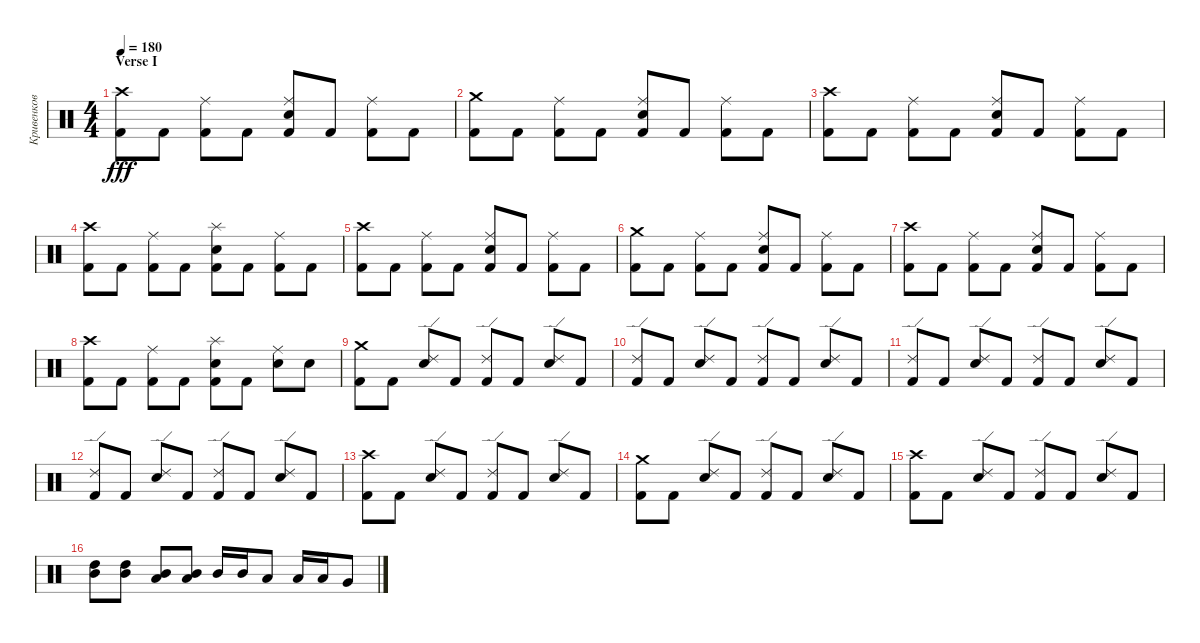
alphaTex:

\track ("Кривенков" "Кривенков") {instrument percussion}
\staff {score}
\articulation defaults
\ts (4 4)
\section ("" "Verse I")
\tempo 180
\clef neutral
\ks c
("Kick (hit) 2" "Crash high (hit)").8{dy fff} "Kick (hit) 2".8 ("Ride (middle)" "Kick (hit) 2").8 "Kick (hit) 2".8 ("Kick (hit) 2" "Ride (middle)" "Snare (hit) 2").8 "Kick (hit) 2".8 ("Ride (middle)" "Kick (hit) 2").8 "Kick (hit) 2".8 |
("Kick (hit) 2" "Crash medium (hit)").8 "Kick (hit) 2".8 ("Kick (hit) 2" "Ride (middle)").8 "Kick (hit) 2".8 ("Kick (hit) 2" "Ride (middle)" "Snare (hit) 2").8 "Kick (hit) 2".8 ("Ride (middle)" "Kick (hit) 2").8 "Kick (hit) 2".8 |
("Kick (hit) 2" "Crash high (hit)").8 "Kick (hit) 2".8 ("Ride (middle)" "Kick (hit) 2").8 "Kick (hit) 2".8 ("Snare (hit) 2" "Kick (hit) 2" "Ride (middle)").8 "Kick (hit) 2".8 ("Kick (hit) 2" "Ride (middle)").8 "Kick (hit) 2".8 |
("Crash high (hit)" "Kick (hit) 2").8 "Kick (hit) 2".8 ("Ride (middle)" "Kick (hit) 2").8 "Kick (hit) 2".8 ("Kick (hit) 2" "Splash (hit)" "Snare (hit) 2").8 "Kick (hit) 2".8 ("Ride (middle)" "Kick (hit) 2").8 "Kick (hit) 2".8 |
("Crash high (hit)" "Kick (hit) 2").8 "Kick (hit) 2".8 ("Ride (middle)" "Kick (hit) 2").8 "Kick (hit) 2".8 ("Snare (hit) 2" "Ride (middle)" "Kick (hit) 2").8 "Kick (hit) 2".8 ("Ride (middle)" "Kick (hit) 2").8 "Kick (hit) 2".8 |
("Crash medium (hit)" "Kick (hit) 2").8 "Kick (hit) 2".8 ("Kick (hit) 2" "Ride (middle)").8 "Kick (hit) 2".8 ("Kick (hit) 2" "Snare (hit) 2" "Ride (middle)").8 "Kick (hit) 2".8 ("Kick (hit) 2" "Ride (middle)").8 "Kick (hit) 2".8 |
("Kick (hit) 2" "Crash high (hit)").8 "Kick (hit) 2".8 ("Ride (middle)" "Kick (hit) 2").8 "Kick (hit) 2".8 ("Snare (hit) 2" "Kick (hit) 2" "Ride (middle)").8 "Kick (hit) 2".8 ("Kick (hit) 2" "Ride (middle)").8 "Kick (hit) 2".8 |
("Kick (hit) 2" "Crash high (hit)").8 "Kick (hit) 2".8 ("Ride (middle)" "Kick (hit) 2").8 "Kick (hit) 2".8 ("Splash (hit)" "Kick (hit) 2" "Snare (hit) 2").8 "Kick (hit) 2".8 ("Ride (middle)" "Snare (hit) 2").8 "Snare (hit) 2".8 |
("Crash medium (hit)" "Kick (hit) 2").8 "Kick (hit) 2".8 ("Snare (hit) 2" "Ride (edge) 2").8 "Kick (hit) 2".8 ("Ride (edge) 2" "Kick (hit) 2").8 "Kick (hit) 2".8 ("Snare (hit) 2" "Ride (edge) 2").8 "Kick (hit) 2".8 |
("Ride (edge) 2" "Kick (hit) 2").8 "Kick (hit) 2".8 ("Ride (edge) 2" "Snare (hit) 2").8 "Kick (hit) 2".8 ("Kick (hit) 2" "Ride (edge) 2").8 "Kick (hit) 2".8 ("Ride (edge) 2" "Snare (hit) 2").8 "Kick (hit) 2".8 |
("Ride (edge) 2" "Kick (hit) 2").8 "Kick (hit) 2".8 ("Ride (edge) 2" "Snare (hit) 2").8 "Kick (hit) 2".8 ("Ride (edge) 2" "Kick (hit) 2").8 "Kick (hit) 2".8 ("Snare (hit) 2" "Ride (edge) 2").8 "Kick (hit) 2".8 |
("Kick (hit) 2" "Ride (edge) 2").8 "Kick (hit) 2".8 ("Ride (edge) 2" "Snare (hit) 2").8 "Kick (hit) 2".8 ("Kick (hit) 2" "Ride (edge) 2").8 "Kick (hit) 2".8 ("Snare (hit) 2" "Ride (edge) 2").8 "Kick (hit) 2".8 |
("Crash high (hit)" "Kick (hit) 2").8 "Kick (hit) 2".8 ("Snare (hit) 2" "Ride (edge) 2").8 "Kick (hit) 2".8 ("Ride (edge) 2" "Kick (hit) 2").8 "Kick (hit) 2".8 ("Snare (hit) 2" "Ride (edge) 2").8 "Kick (hit) 2".8 |
("Crash medium (hit)" "Kick (hit) 2").8 "Kick (hit) 2".8 ("Ride (edge) 2" "Snare (hit) 2").8 "Kick (hit) 2".8 ("Ride (edge) 2" "Kick (hit) 2").8 "Kick (hit) 2".8 ("Snare (hit) 2" "Ride (edge) 2").8 "Kick (hit) 2".8 |
("Crash high (hit)" "Kick (hit) 2").8 "Kick (hit) 2".8 ("Snare (hit) 2" "Ride (edge) 2").8 "Kick (hit) 2".8 ("Kick (hit) 2" "Ride (edge) 2").8 "Kick (hit) 2".8 ("Ride (edge) 2" "Snare (hit) 2").8 "Kick (hit) 2".8 |
("Mid Tom (hit)" "High Tom (hit)").8 ("Mid Tom (hit)" "High Tom (hit)").8 ("Low Tom (hit)" "Mid Tom (hit)").8 ("Mid Tom (hit)" "Low Tom (hit)").8 "Mid Tom (hit)".16 "Mid Tom (hit)".16 "Low Tom (hit)".8 "Low Tom (hit)".16 "Low Tom (hit)".16 "Very Low Tom (hit)".8
